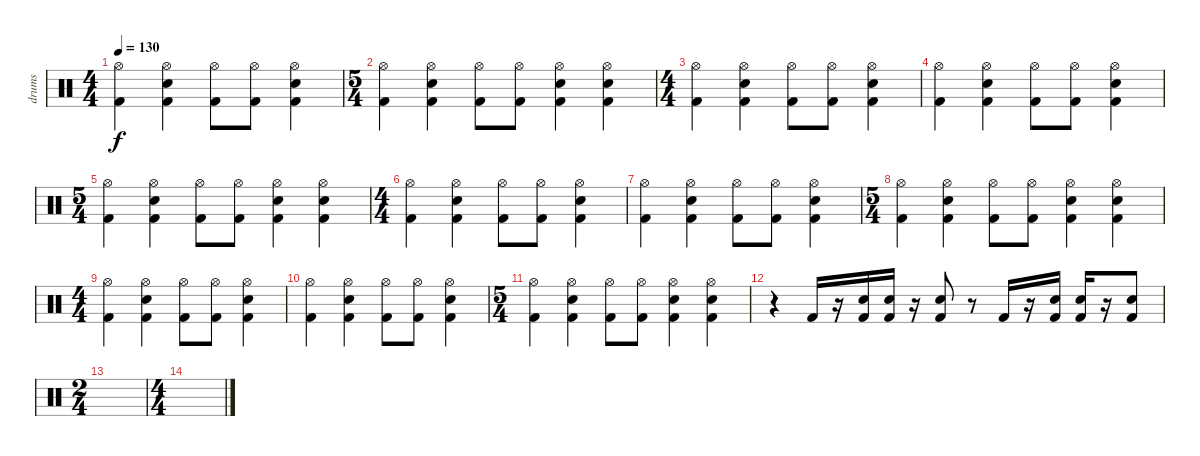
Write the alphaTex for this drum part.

\track ("drums" "drums") {instrument percussion}
\staff {score}
\articulation defaults
\ts (4 4)
\tempo 130
\clef neutral
\ks c
("Hi-Hat (open)" "Kick (hit) 2").4{dy f} ("Hi-Hat (open)" "Snare (hit) 2" "Kick (hit) 2").4 ("Hi-Hat (open)" "Kick (hit) 2").8 ("Hi-Hat (open)" "Kick (hit) 2").8 ("Hi-Hat (open)" "Snare (hit) 2" "Kick (hit) 2").4 |
\ts (5 4)
("Hi-Hat (open)" "Kick (hit) 2").4 ("Hi-Hat (open)" "Snare (hit) 2" "Kick (hit) 2").4 ("Hi-Hat (open)" "Kick (hit) 2").8 ("Hi-Hat (open)" "Kick (hit) 2").8 ("Hi-Hat (open)" "Snare (hit) 2" "Kick (hit) 2").4 ("Hi-Hat (open)" "Snare (hit) 2" "Kick (hit) 2").4 |
\ts (4 4)
("Hi-Hat (open)" "Kick (hit) 2").4 ("Hi-Hat (open)" "Snare (hit) 2" "Kick (hit) 2").4 ("Hi-Hat (open)" "Kick (hit) 2").8 ("Hi-Hat (open)" "Kick (hit) 2").8 ("Hi-Hat (open)" "Snare (hit) 2" "Kick (hit) 2").4 |
("Hi-Hat (open)" "Kick (hit) 2").4 ("Hi-Hat (open)" "Snare (hit) 2" "Kick (hit) 2").4 ("Hi-Hat (open)" "Kick (hit) 2").8 ("Hi-Hat (open)" "Kick (hit) 2").8 ("Hi-Hat (open)" "Snare (hit) 2" "Kick (hit) 2").4 |
\ts (5 4)
("Hi-Hat (open)" "Kick (hit) 2").4 ("Hi-Hat (open)" "Snare (hit) 2" "Kick (hit) 2").4 ("Hi-Hat (open)" "Kick (hit) 2").8 ("Hi-Hat (open)" "Kick (hit) 2").8 ("Hi-Hat (open)" "Snare (hit) 2" "Kick (hit) 2").4 ("Hi-Hat (open)" "Snare (hit) 2" "Kick (hit) 2").4 |
\ts (4 4)
("Hi-Hat (open)" "Kick (hit) 2").4 ("Hi-Hat (open)" "Snare (hit) 2" "Kick (hit) 2").4 ("Hi-Hat (open)" "Kick (hit) 2").8 ("Hi-Hat (open)" "Kick (hit) 2").8 ("Hi-Hat (open)" "Snare (hit) 2" "Kick (hit) 2").4 |
("Hi-Hat (open)" "Kick (hit) 2").4 ("Hi-Hat (open)" "Snare (hit) 2" "Kick (hit) 2").4 ("Hi-Hat (open)" "Kick (hit) 2").8 ("Hi-Hat (open)" "Kick (hit) 2").8 ("Hi-Hat (open)" "Snare (hit) 2" "Kick (hit) 2").4 |
\ts (5 4)
("Hi-Hat (open)" "Kick (hit) 2").4 ("Hi-Hat (open)" "Snare (hit) 2" "Kick (hit) 2").4 ("Hi-Hat (open)" "Kick (hit) 2").8 ("Hi-Hat (open)" "Kick (hit) 2").8 ("Hi-Hat (open)" "Snare (hit) 2" "Kick (hit) 2").4 ("Hi-Hat (open)" "Snare (hit) 2" "Kick (hit) 2").4 |
\ts (4 4)
("Hi-Hat (open)" "Kick (hit) 2").4 ("Hi-Hat (open)" "Snare (hit) 2" "Kick (hit) 2").4 ("Hi-Hat (open)" "Kick (hit) 2").8 ("Hi-Hat (open)" "Kick (hit) 2").8 ("Hi-Hat (open)" "Snare (hit) 2" "Kick (hit) 2").4 |
("Hi-Hat (open)" "Kick (hit) 2").4 ("Hi-Hat (open)" "Snare (hit) 2" "Kick (hit) 2").4 ("Hi-Hat (open)" "Kick (hit) 2").8 ("Hi-Hat (open)" "Kick (hit) 2").8 ("Hi-Hat (open)" "Snare (hit) 2" "Kick (hit) 2").4 |
\ts (5 4)
("Hi-Hat (open)" "Kick (hit) 2").4 ("Hi-Hat (open)" "Snare (hit) 2" "Kick (hit) 2").4 ("Hi-Hat (open)" "Kick (hit) 2").8 ("Hi-Hat (open)" "Kick (hit) 2").8 ("Hi-Hat (open)" "Snare (hit) 2" "Kick (hit) 2").4 ("Hi-Hat (open)" "Snare (hit) 2" "Kick (hit) 2").4 |
r.4 "Kick (hit) 2".16 r.16 ("Snare (hit) 2" "Kick (hit) 2").16 ("Snare (hit) 2" "Kick (hit) 2").16 r.16 ("Snare (hit) 2" "Kick (hit) 2").8 r.8 "Kick (hit) 2".16 r.16 ("Snare (hit) 2" "Kick (hit) 2").16 ("Snare (hit) 2" "Kick (hit) 2").16 r.16 ("Snare (hit) 2" "Kick (hit) 2").8 |
\ts (2 4)
|
\ts (4 4)
